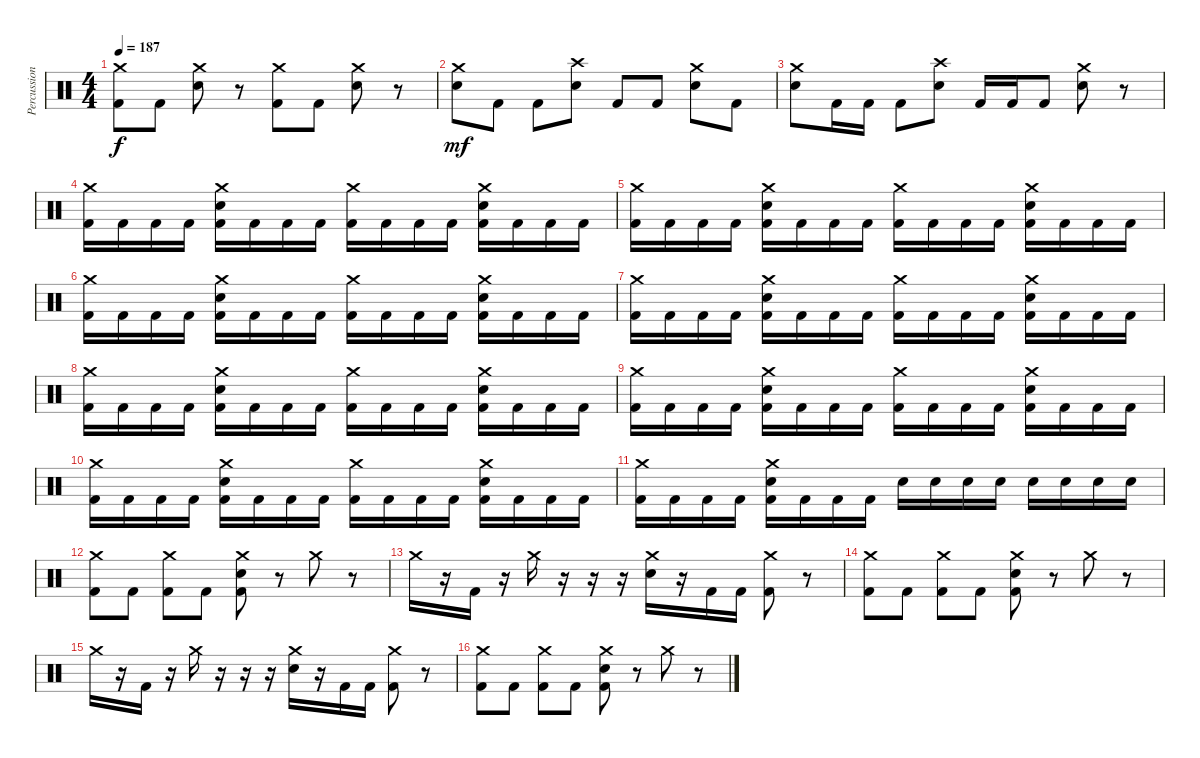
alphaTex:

\track ("Percussion" "Percussion") {instrument percussion}
\staff {score}
\articulation defaults
\ts (4 4)
\tempo 187
\clef neutral
\ks c
("Crash medium (hit)" "Kick (hit) 2").8{dy f} "Kick (hit) 2".8 ("Crash medium (hit)" "Electric Snare (hit)").8 r.8 ("Crash medium (hit)" "Kick (hit) 2").8 "Kick (hit) 2".8 ("Crash medium (hit)" "Electric Snare (hit)").8 r.8 |
("Crash medium (hit)" "Electric Snare (hit)").8{dy mf} "Kick (hit) 2".8 "Kick (hit) 2".8 ("Crash high (hit)" "Electric Snare (hit)").8 "Kick (hit) 2".8 "Kick (hit) 2".8 ("Crash medium (hit)" "Electric Snare (hit)").8 "Kick (hit) 2".8 |
("Crash medium (hit)" "Electric Snare (hit)").8 "Kick (hit) 2".16 "Kick (hit) 2".16 "Kick (hit) 2".8 ("Crash high (hit)" "Electric Snare (hit)").8 "Kick (hit) 2".16 "Kick (hit) 2".16 "Kick (hit) 2".8 ("Crash medium (hit)" "Electric Snare (hit)").8 r.8 |
("Crash medium (hit)" "Kick (hit) 2").16 "Kick (hit) 2".16 "Kick (hit) 2".16 "Kick (hit) 2".16 ("Crash medium (hit)" "Electric Snare (hit)" "Kick (hit) 2").16 "Kick (hit) 2".16 "Kick (hit) 2".16 "Kick (hit) 2".16 ("Crash medium (hit)" "Kick (hit) 2").16 "Kick (hit) 2".16 "Kick (hit) 2".16 "Kick (hit) 2".16 ("Crash medium (hit)" "Electric Snare (hit)" "Kick (hit) 2").16 "Kick (hit) 2".16 "Kick (hit) 2".16 "Kick (hit) 2".16 |
("Crash medium (hit)" "Kick (hit) 2").16 "Kick (hit) 2".16 "Kick (hit) 2".16 "Kick (hit) 2".16 ("Crash medium (hit)" "Electric Snare (hit)" "Kick (hit) 2").16 "Kick (hit) 2".16 "Kick (hit) 2".16 "Kick (hit) 2".16 ("Crash medium (hit)" "Kick (hit) 2").16 "Kick (hit) 2".16 "Kick (hit) 2".16 "Kick (hit) 2".16 ("Crash medium (hit)" "Electric Snare (hit)" "Kick (hit) 2").16 "Kick (hit) 2".16 "Kick (hit) 2".16 "Kick (hit) 2".16 |
("Crash medium (hit)" "Kick (hit) 2").16 "Kick (hit) 2".16 "Kick (hit) 2".16 "Kick (hit) 2".16 ("Crash medium (hit)" "Electric Snare (hit)" "Kick (hit) 2").16 "Kick (hit) 2".16 "Kick (hit) 2".16 "Kick (hit) 2".16 ("Crash medium (hit)" "Kick (hit) 2").16 "Kick (hit) 2".16 "Kick (hit) 2".16 "Kick (hit) 2".16 ("Crash medium (hit)" "Electric Snare (hit)" "Kick (hit) 2").16 "Kick (hit) 2".16 "Kick (hit) 2".16 "Kick (hit) 2".16 |
("Crash medium (hit)" "Kick (hit) 2").16 "Kick (hit) 2".16 "Kick (hit) 2".16 "Kick (hit) 2".16 ("Crash medium (hit)" "Electric Snare (hit)" "Kick (hit) 2").16 "Kick (hit) 2".16 "Kick (hit) 2".16 "Kick (hit) 2".16 ("Crash medium (hit)" "Kick (hit) 2").16 "Kick (hit) 2".16 "Kick (hit) 2".16 "Kick (hit) 2".16 ("Crash medium (hit)" "Electric Snare (hit)" "Kick (hit) 2").16 "Kick (hit) 2".16 "Kick (hit) 2".16 "Kick (hit) 2".16 |
("Crash medium (hit)" "Kick (hit) 2").16 "Kick (hit) 2".16 "Kick (hit) 2".16 "Kick (hit) 2".16 ("Crash medium (hit)" "Electric Snare (hit)" "Kick (hit) 2").16 "Kick (hit) 2".16 "Kick (hit) 2".16 "Kick (hit) 2".16 ("Crash medium (hit)" "Kick (hit) 2").16 "Kick (hit) 2".16 "Kick (hit) 2".16 "Kick (hit) 2".16 ("Crash medium (hit)" "Electric Snare (hit)" "Kick (hit) 2").16 "Kick (hit) 2".16 "Kick (hit) 2".16 "Kick (hit) 2".16 |
("Crash medium (hit)" "Kick (hit) 2").16 "Kick (hit) 2".16 "Kick (hit) 2".16 "Kick (hit) 2".16 ("Crash medium (hit)" "Electric Snare (hit)" "Kick (hit) 2").16 "Kick (hit) 2".16 "Kick (hit) 2".16 "Kick (hit) 2".16 ("Crash medium (hit)" "Kick (hit) 2").16 "Kick (hit) 2".16 "Kick (hit) 2".16 "Kick (hit) 2".16 ("Crash medium (hit)" "Electric Snare (hit)" "Kick (hit) 2").16 "Kick (hit) 2".16 "Kick (hit) 2".16 "Kick (hit) 2".16 |
("Crash medium (hit)" "Kick (hit) 2").16 "Kick (hit) 2".16 "Kick (hit) 2".16 "Kick (hit) 2".16 ("Crash medium (hit)" "Electric Snare (hit)" "Kick (hit) 2").16 "Kick (hit) 2".16 "Kick (hit) 2".16 "Kick (hit) 2".16 ("Crash medium (hit)" "Kick (hit) 2").16 "Kick (hit) 2".16 "Kick (hit) 2".16 "Kick (hit) 2".16 ("Crash medium (hit)" "Electric Snare (hit)" "Kick (hit) 2").16 "Kick (hit) 2".16 "Kick (hit) 2".16 "Kick (hit) 2".16 |
("Crash medium (hit)" "Kick (hit) 2").16 "Kick (hit) 2".16 "Kick (hit) 2".16 "Kick (hit) 2".16 ("Crash medium (hit)" "Electric Snare (hit)" "Kick (hit) 2").16 "Kick (hit) 2".16 "Kick (hit) 2".16 "Kick (hit) 2".16 "Electric Snare (hit)".16 "Electric Snare (hit)".16 "Electric Snare (hit)".16 "Electric Snare (hit)".16 "Electric Snare (hit)".16 "Electric Snare (hit)".16 "Electric Snare (hit)".16 "Electric Snare (hit)".16 |
("Crash medium (hit)" "Kick (hit) 2").8 "Kick (hit) 2".8 ("Crash medium (hit)" "Kick (hit) 2").8 "Kick (hit) 2".8 ("Crash medium (hit)" "Electric Snare (hit)" "Kick (hit) 2").8 r.8 "Crash medium (hit)".8 r.8 |
"Crash medium (hit)".16 r.16 "Kick (hit) 2".16 r.16 "Crash medium (hit)".16 r.16 r.16 r.16 ("Crash medium (hit)" "Electric Snare (hit)").16 r.16 "Kick (hit) 2".16 "Kick (hit) 2".16 ("Crash medium (hit)" "Kick (hit) 2").8 r.8 |
("Crash medium (hit)" "Kick (hit) 2").8 "Kick (hit) 2".8 ("Crash medium (hit)" "Kick (hit) 2").8 "Kick (hit) 2".8 ("Crash medium (hit)" "Electric Snare (hit)" "Kick (hit) 2").8 r.8 "Crash medium (hit)".8 r.8 |
"Crash medium (hit)".16 r.16 "Kick (hit) 2".16 r.16 "Crash medium (hit)".16 r.16 r.16 r.16 ("Crash medium (hit)" "Electric Snare (hit)").16 r.16 "Kick (hit) 2".16 "Kick (hit) 2".16 ("Crash medium (hit)" "Kick (hit) 2").8 r.8 |
("Crash medium (hit)" "Kick (hit) 2").8 "Kick (hit) 2".8 ("Crash medium (hit)" "Kick (hit) 2").8 "Kick (hit) 2".8 ("Crash medium (hit)" "Electric Snare (hit)" "Kick (hit) 2").8 r.8 "Crash medium (hit)".8 r.8
